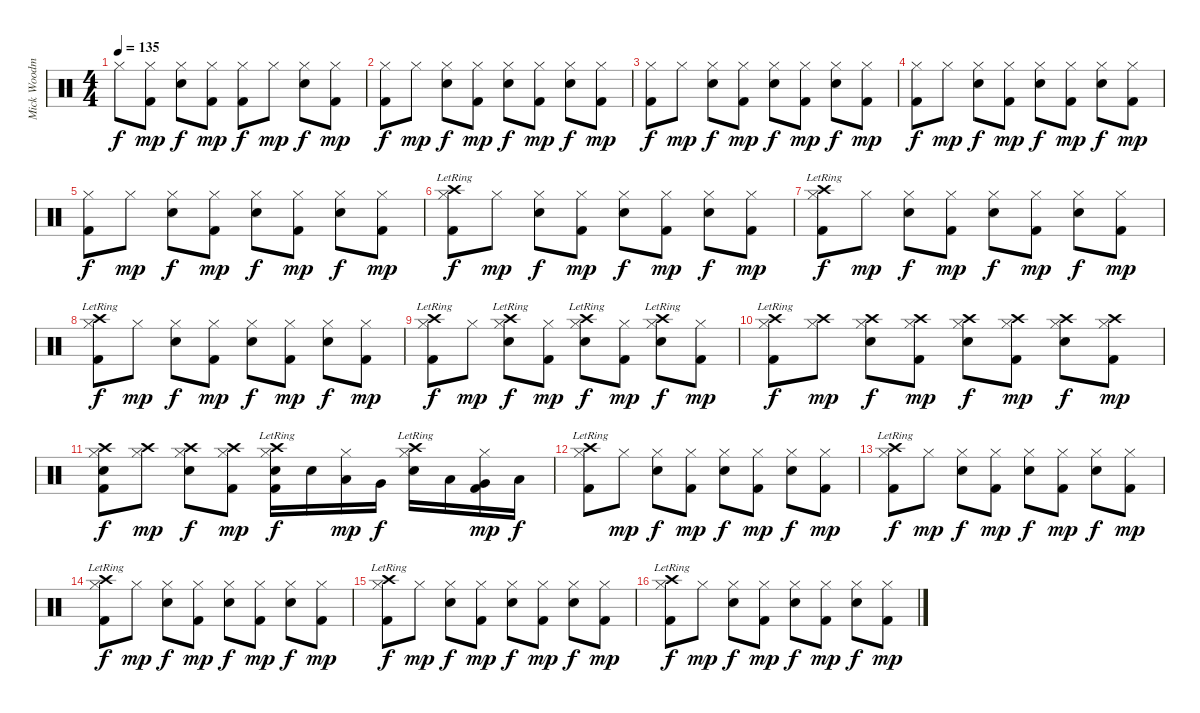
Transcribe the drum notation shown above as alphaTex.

\track ("Mick Woodmansey - Drums" "Mick Woodm") {instrument percussion}
\staff {score}
\articulation defaults
\ts (4 4)
\tempo 135
\clef neutral
\ks c "Hi-Hat (closed)".8{dy f}
("Hi-Hat (closed)" "Kick (hit) 2").8{dy mp} ("Hi-Hat (closed)" "Electric Snare (hit)").8{dy f} ("Hi-Hat (closed)" "Kick (hit) 2").8{dy mp} ("Hi-Hat (closed)" "Kick (hit) 2").8{dy f} "Hi-Hat (closed)".8{dy mp} ("Hi-Hat (closed)" "Electric Snare (hit)").8{dy f} ("Hi-Hat (closed)" "Kick (hit) 2").8{dy mp} |
("Hi-Hat (closed)" "Kick (hit) 2").8{dy f} "Hi-Hat (closed)".8{dy mp} ("Hi-Hat (closed)" "Electric Snare (hit)").8{dy f} ("Hi-Hat (closed)" "Kick (hit) 2").8{dy mp} ("Hi-Hat (closed)" "Electric Snare (hit)").8{dy f} ("Hi-Hat (closed)" "Kick (hit) 2").8{dy mp} ("Hi-Hat (closed)" "Electric Snare (hit)").8{dy f} ("Hi-Hat (closed)" "Kick (hit) 2").8{dy mp} |
("Hi-Hat (closed)" "Kick (hit) 2").8{dy f} "Hi-Hat (closed)".8{dy mp} ("Hi-Hat (closed)" "Electric Snare (hit)").8{dy f} ("Hi-Hat (closed)" "Kick (hit) 2").8{dy mp} ("Hi-Hat (closed)" "Electric Snare (hit)").8{dy f} ("Hi-Hat (closed)" "Kick (hit) 2").8{dy mp} ("Hi-Hat (closed)" "Electric Snare (hit)").8{dy f} ("Hi-Hat (closed)" "Kick (hit) 2").8{dy mp} |
("Hi-Hat (closed)" "Kick (hit) 2").8{dy f} "Hi-Hat (closed)".8{dy mp} ("Hi-Hat (closed)" "Electric Snare (hit)").8{dy f} ("Hi-Hat (closed)" "Kick (hit) 2").8{dy mp} ("Hi-Hat (closed)" "Electric Snare (hit)").8{dy f} ("Hi-Hat (closed)" "Kick (hit) 2").8{dy mp} ("Hi-Hat (closed)" "Electric Snare (hit)").8{dy f} ("Hi-Hat (closed)" "Kick (hit) 2").8{dy mp} |
("Hi-Hat (closed)" "Kick (hit) 2").8{dy f} "Hi-Hat (closed)".8{dy mp} ("Hi-Hat (closed)" "Electric Snare (hit)").8{dy f} ("Hi-Hat (closed)" "Kick (hit) 2").8{dy mp} ("Hi-Hat (closed)" "Electric Snare (hit)").8{dy f} ("Hi-Hat (closed)" "Kick (hit) 2").8{dy mp} ("Hi-Hat (closed)" "Electric Snare (hit)").8{dy f} ("Hi-Hat (closed)" "Kick (hit) 2").8{dy mp} |
("Crash high (hit)"{lr} "Hi-Hat (closed)" "Kick (hit) 2").8{dy f} "Hi-Hat (closed)".8{dy mp} ("Hi-Hat (closed)" "Electric Snare (hit)").8{dy f} ("Hi-Hat (closed)" "Kick (hit) 2").8{dy mp} ("Hi-Hat (closed)" "Electric Snare (hit)").8{dy f} ("Hi-Hat (closed)" "Kick (hit) 2").8{dy mp} ("Hi-Hat (closed)" "Electric Snare (hit)").8{dy f} ("Hi-Hat (closed)" "Kick (hit) 2").8{dy mp} |
("Crash high (hit)"{lr} "Hi-Hat (closed)" "Kick (hit) 2").8{dy f} "Hi-Hat (closed)".8{dy mp} ("Hi-Hat (closed)" "Electric Snare (hit)").8{dy f} ("Hi-Hat (closed)" "Kick (hit) 2").8{dy mp} ("Hi-Hat (closed)" "Electric Snare (hit)").8{dy f} ("Hi-Hat (closed)" "Kick (hit) 2").8{dy mp} ("Hi-Hat (closed)" "Electric Snare (hit)").8{dy f} ("Hi-Hat (closed)" "Kick (hit) 2").8{dy mp} |
("Crash high (hit)"{lr} "Hi-Hat (closed)" "Kick (hit) 2").8{dy f} "Hi-Hat (closed)".8{dy mp} ("Hi-Hat (closed)" "Electric Snare (hit)").8{dy f} ("Hi-Hat (closed)" "Kick (hit) 2").8{dy mp} ("Hi-Hat (closed)" "Electric Snare (hit)").8{dy f} ("Hi-Hat (closed)" "Kick (hit) 2").8{dy mp} ("Hi-Hat (closed)" "Electric Snare (hit)").8{dy f} ("Hi-Hat (closed)" "Kick (hit) 2").8{dy mp} |
("Crash high (hit)"{lr} "Hi-Hat (closed)" "Kick (hit) 2").8{dy f} "Hi-Hat (closed)".8{dy mp} ("Crash high (hit)"{lr} "Hi-Hat (closed)" "Electric Snare (hit)").8{dy f} ("Hi-Hat (closed)" "Kick (hit) 2").8{dy mp} ("Crash high (hit)"{lr} "Hi-Hat (closed)" "Electric Snare (hit)").8{dy f} ("Hi-Hat (closed)" "Kick (hit) 2").8{dy mp} ("Crash high (hit)"{lr} "Hi-Hat (closed)" "Electric Snare (hit)").8{dy f} ("Hi-Hat (closed)" "Kick (hit) 2").8{dy mp} |
("Crash high (hit)"{lr} "Hi-Hat (closed)" "Kick (hit) 2").8{dy f} ("Crash high (hit)" "Hi-Hat (closed)").8{dy mp} ("Crash high (hit)" "Hi-Hat (closed)" "Electric Snare (hit)").8{dy f} ("Crash high (hit)" "Hi-Hat (closed)" "Kick (hit) 2").8{dy mp} ("Crash high (hit)" "Hi-Hat (closed)" "Electric Snare (hit)").8{dy f} ("Crash high (hit)" "Hi-Hat (closed)" "Kick (hit) 2").8{dy mp} ("Crash high (hit)" "Hi-Hat (closed)" "Electric Snare (hit)").8{dy f} ("Crash high (hit)" "Hi-Hat (closed)" "Kick (hit) 2").8{dy mp} |
("Crash high (hit)" "Hi-Hat (closed)" "Electric Snare (hit)" "Kick (hit) 2").8{dy f} ("Crash high (hit)" "Hi-Hat (closed)").8{dy mp} ("Crash high (hit)" "Hi-Hat (closed)" "Electric Snare (hit)").8{dy f} ("Crash high (hit)" "Hi-Hat (closed)" "Kick (hit) 2").8{dy mp} ("Crash high (hit)"{lr} "Hi-Hat (closed)" "Electric Snare (hit)" "Kick (hit) 2").16{dy f} "Electric Snare (hit)".16 ("Hi-Hat (closed)" "Low Tom (hit)").16{dy mp} "Very Low Tom (hit)".16{dy f} ("Crash high (hit)"{lr} "Hi-Hat (closed)" "Electric Snare (hit)").16 "Low Tom (hit)".16 ("Hi-Hat (closed)" "Very Low Tom (hit)" "Kick (hit) 2").16{dy mp} "Low Floor Tom (hit)".16{dy f} |
("Crash high (hit)"{lr} "Hi-Hat (closed)" "Kick (hit) 2").8 "Hi-Hat (closed)".8{dy mp} ("Hi-Hat (closed)" "Electric Snare (hit)").8{dy f} ("Hi-Hat (closed)" "Kick (hit) 2").8{dy mp} ("Hi-Hat (closed)" "Electric Snare (hit)").8{dy f} ("Hi-Hat (closed)" "Kick (hit) 2").8{dy mp} ("Hi-Hat (closed)" "Electric Snare (hit)").8{dy f} ("Hi-Hat (closed)" "Kick (hit) 2").8{dy mp} |
("Crash high (hit)"{lr} "Hi-Hat (closed)" "Kick (hit) 2").8{dy f} "Hi-Hat (closed)".8{dy mp} ("Hi-Hat (closed)" "Electric Snare (hit)").8{dy f} ("Hi-Hat (closed)" "Kick (hit) 2").8{dy mp} ("Hi-Hat (closed)" "Electric Snare (hit)").8{dy f} ("Hi-Hat (closed)" "Kick (hit) 2").8{dy mp} ("Hi-Hat (closed)" "Electric Snare (hit)").8{dy f} ("Hi-Hat (closed)" "Kick (hit) 2").8{dy mp} |
("Crash high (hit)"{lr} "Hi-Hat (closed)" "Kick (hit) 2").8{dy f} "Hi-Hat (closed)".8{dy mp} ("Hi-Hat (closed)" "Electric Snare (hit)").8{dy f} ("Hi-Hat (closed)" "Kick (hit) 2").8{dy mp} ("Hi-Hat (closed)" "Electric Snare (hit)").8{dy f} ("Hi-Hat (closed)" "Kick (hit) 2").8{dy mp} ("Hi-Hat (closed)" "Electric Snare (hit)").8{dy f} ("Hi-Hat (closed)" "Kick (hit) 2").8{dy mp} |
("Crash high (hit)"{lr} "Hi-Hat (closed)" "Kick (hit) 2").8{dy f} "Hi-Hat (closed)".8{dy mp} ("Hi-Hat (closed)" "Electric Snare (hit)").8{dy f} ("Hi-Hat (closed)" "Kick (hit) 2").8{dy mp} ("Hi-Hat (closed)" "Electric Snare (hit)").8{dy f} ("Hi-Hat (closed)" "Kick (hit) 2").8{dy mp} ("Hi-Hat (closed)" "Electric Snare (hit)").8{dy f} ("Hi-Hat (closed)" "Kick (hit) 2").8{dy mp} |
("Crash high (hit)"{lr} "Hi-Hat (closed)" "Kick (hit) 2").8{dy f} "Hi-Hat (closed)".8{dy mp} ("Hi-Hat (closed)" "Electric Snare (hit)").8{dy f} ("Hi-Hat (closed)" "Kick (hit) 2").8{dy mp} ("Hi-Hat (closed)" "Electric Snare (hit)").8{dy f} ("Hi-Hat (closed)" "Kick (hit) 2").8{dy mp} ("Hi-Hat (closed)" "Electric Snare (hit)").8{dy f} ("Hi-Hat (closed)" "Kick (hit) 2").8{dy mp}
